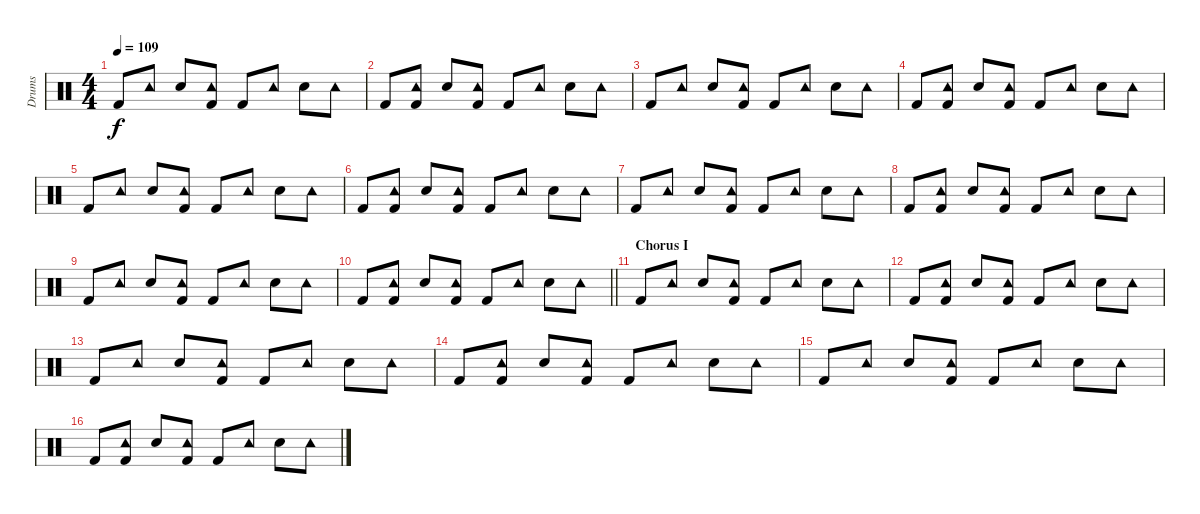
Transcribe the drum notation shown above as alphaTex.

\track ("Drums" "Drums") {instrument percussion}
\staff {score}
\articulation defaults
\ts (4 4)
\tempo 109
\clef neutral
\ks c "Kick (hit) 2".8{dy f} "Tambourine (hit)".8 "Snare (hit) 2".8
("Tambourine (hit)" "Kick (hit) 2").8 "Kick (hit) 2".8 "Tambourine (hit)".8 "Snare (hit) 2".8 "Tambourine (hit)".8 |
"Kick (hit) 2".8 ("Tambourine (hit)" "Kick (hit) 2").8 "Snare (hit) 2".8 ("Tambourine (hit)" "Kick (hit) 2").8 "Kick (hit) 2".8 "Tambourine (hit)".8 "Snare (hit) 2".8 "Tambourine (hit)".8 |
"Kick (hit) 2".8 "Tambourine (hit)".8 "Snare (hit) 2".8 ("Tambourine (hit)" "Kick (hit) 2").8 "Kick (hit) 2".8 "Tambourine (hit)".8 "Snare (hit) 2".8 "Tambourine (hit)".8 |
"Kick (hit) 2".8 ("Tambourine (hit)" "Kick (hit) 2").8 "Snare (hit) 2".8 ("Tambourine (hit)" "Kick (hit) 2").8 "Kick (hit) 2".8 "Tambourine (hit)".8 "Snare (hit) 2".8 "Tambourine (hit)".8 |
"Kick (hit) 2".8 "Tambourine (hit)".8 "Snare (hit) 2".8 ("Tambourine (hit)" "Kick (hit) 2").8 "Kick (hit) 2".8 "Tambourine (hit)".8 "Snare (hit) 2".8 "Tambourine (hit)".8 |
"Kick (hit) 2".8 ("Tambourine (hit)" "Kick (hit) 2").8 "Snare (hit) 2".8 ("Tambourine (hit)" "Kick (hit) 2").8 "Kick (hit) 2".8 "Tambourine (hit)".8 "Snare (hit) 2".8 "Tambourine (hit)".8 |
"Kick (hit) 2".8 "Tambourine (hit)".8 "Snare (hit) 2".8 ("Tambourine (hit)" "Kick (hit) 2").8 "Kick (hit) 2".8 "Tambourine (hit)".8 "Snare (hit) 2".8 "Tambourine (hit)".8 |
"Kick (hit) 2".8 ("Tambourine (hit)" "Kick (hit) 2").8 "Snare (hit) 2".8 ("Tambourine (hit)" "Kick (hit) 2").8 "Kick (hit) 2".8 "Tambourine (hit)".8 "Snare (hit) 2".8 "Tambourine (hit)".8 |
"Kick (hit) 2".8 "Tambourine (hit)".8 "Snare (hit) 2".8 ("Tambourine (hit)" "Kick (hit) 2").8 "Kick (hit) 2".8 "Tambourine (hit)".8 "Snare (hit) 2".8 "Tambourine (hit)".8 |
\barLineRight lightlight "Kick (hit) 2".8
("Tambourine (hit)" "Kick (hit) 2").8 "Snare (hit) 2".8 ("Tambourine (hit)" "Kick (hit) 2").8 "Kick (hit) 2".8 "Tambourine (hit)".8 "Snare (hit) 2".8 "Tambourine (hit)".8 |
\section ("" "Chorus I")
"Kick (hit) 2".8 "Tambourine (hit)".8 "Snare (hit) 2".8 ("Tambourine (hit)" "Kick (hit) 2").8 "Kick (hit) 2".8 "Tambourine (hit)".8 "Snare (hit) 2".8 "Tambourine (hit)".8 |
"Kick (hit) 2".8 ("Tambourine (hit)" "Kick (hit) 2").8 "Snare (hit) 2".8 ("Tambourine (hit)" "Kick (hit) 2").8 "Kick (hit) 2".8 "Tambourine (hit)".8 "Snare (hit) 2".8 "Tambourine (hit)".8 |
"Kick (hit) 2".8 "Tambourine (hit)".8 "Snare (hit) 2".8 ("Tambourine (hit)" "Kick (hit) 2").8 "Kick (hit) 2".8 "Tambourine (hit)".8 "Snare (hit) 2".8 "Tambourine (hit)".8 |
"Kick (hit) 2".8 ("Tambourine (hit)" "Kick (hit) 2").8 "Snare (hit) 2".8 ("Tambourine (hit)" "Kick (hit) 2").8 "Kick (hit) 2".8 "Tambourine (hit)".8 "Snare (hit) 2".8 "Tambourine (hit)".8 |
"Kick (hit) 2".8 "Tambourine (hit)".8 "Snare (hit) 2".8 ("Tambourine (hit)" "Kick (hit) 2").8 "Kick (hit) 2".8 "Tambourine (hit)".8 "Snare (hit) 2".8 "Tambourine (hit)".8 |
"Kick (hit) 2".8 ("Tambourine (hit)" "Kick (hit) 2").8 "Snare (hit) 2".8 ("Tambourine (hit)" "Kick (hit) 2").8 "Kick (hit) 2".8 "Tambourine (hit)".8 "Snare (hit) 2".8 "Tambourine (hit)".8
